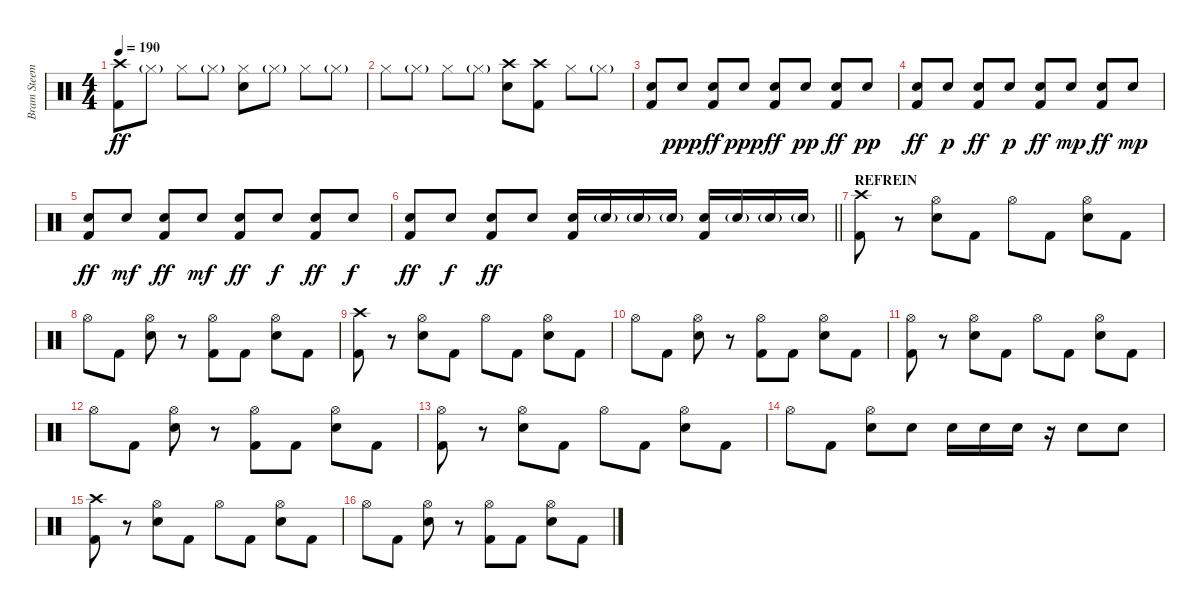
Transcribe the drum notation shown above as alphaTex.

\track ("Bram Steemans" "Bram Steem") {instrument percussion}
\staff {score}
\articulation defaults
\ts (4 4)
\tempo 190
\clef neutral
\ks c
("Crash high (hit)" "Kick (hit) 2").8{dy ff} "Hi-Hat (closed)"{g}.8 "Hi-Hat (closed)".8 "Hi-Hat (closed)"{g}.8 ("Hi-Hat (closed)" "Snare (hit) 2").8 "Hi-Hat (closed)"{g}.8 "Hi-Hat (closed)".8 "Hi-Hat (closed)"{g}.8 |
"Hi-Hat (closed)".8 "Hi-Hat (closed)"{g}.8 "Hi-Hat (closed)".8 "Hi-Hat (closed)"{g}.8 ("Crash high (hit)" "Snare (hit) 2").8 ("Crash high (hit)" "Kick (hit) 2").8 "Hi-Hat (closed)".8 "Hi-Hat (closed)"{g}.8 |
("Snare (hit) 2" "Kick (hit) 2").8 "Snare (hit) 2".8{dy ppp} ("Snare (hit) 2" "Kick (hit) 2").8{dy ff} "Snare (hit) 2".8{dy ppp} ("Snare (hit) 2" "Kick (hit) 2").8{dy ff} "Snare (hit) 2".8{dy pp} ("Snare (hit) 2" "Kick (hit) 2").8{dy ff} "Snare (hit) 2".8{dy pp} |
("Snare (hit) 2" "Kick (hit) 2").8{dy ff} "Snare (hit) 2".8{dy p} ("Snare (hit) 2" "Kick (hit) 2").8{dy ff} "Snare (hit) 2".8{dy p} ("Snare (hit) 2" "Kick (hit) 2").8{dy ff} "Snare (hit) 2".8{dy mp} ("Snare (hit) 2" "Kick (hit) 2").8{dy ff} "Snare (hit) 2".8{dy mp} |
("Snare (hit) 2" "Kick (hit) 2").8{dy ff} "Snare (hit) 2".8{dy mf} ("Snare (hit) 2" "Kick (hit) 2").8{dy ff} "Snare (hit) 2".8{dy mf} ("Snare (hit) 2" "Kick (hit) 2").8{dy ff} "Snare (hit) 2".8{dy f} ("Snare (hit) 2" "Kick (hit) 2").8{dy ff} "Snare (hit) 2".8{dy f} |
\barLineRight lightlight
("Snare (hit) 2" "Kick (hit) 2").8{dy ff} "Snare (hit) 2".8{dy f} ("Snare (hit) 2" "Kick (hit) 2").8{dy ff} "Snare (hit) 2".8 ("Snare (hit) 2" "Kick (hit) 2").16 "Snare (hit) 2"{g}.16 "Snare (hit) 2"{g}.16 "Snare (hit) 2"{g}.16 ("Snare (hit) 2" "Kick (hit) 2").16 "Snare (hit) 2"{g}.16 "Snare (hit) 2"{g}.16 "Snare (hit) 2"{g}.16 |
\section ("" "REFREIN")
("Crash high (hit)" "Kick (hit) 2").8 r.8 ("Hi-Hat (open)" "Snare (hit) 2").8 "Kick (hit) 2".8 "Hi-Hat (open)".8 "Kick (hit) 2".8 ("Hi-Hat (open)" "Snare (hit) 2").8 "Kick (hit) 2".8 |
"Hi-Hat (open)".8 "Kick (hit) 2".8 ("Hi-Hat (open)" "Snare (hit) 2").8 r.8 ("Hi-Hat (open)" "Kick (hit) 2").8 "Kick (hit) 2".8 ("Hi-Hat (open)" "Snare (hit) 2").8 "Kick (hit) 2".8 |
("Crash high (hit)" "Kick (hit) 2").8 r.8 ("Hi-Hat (open)" "Snare (hit) 2").8 "Kick (hit) 2".8 "Hi-Hat (open)".8 "Kick (hit) 2".8 ("Hi-Hat (open)" "Snare (hit) 2").8 "Kick (hit) 2".8 |
"Hi-Hat (open)".8 "Kick (hit) 2".8 ("Hi-Hat (open)" "Snare (hit) 2").8 r.8 ("Hi-Hat (open)" "Kick (hit) 2").8 "Kick (hit) 2".8 ("Hi-Hat (open)" "Snare (hit) 2").8 "Kick (hit) 2".8 |
("Hi-Hat (open)" "Kick (hit) 2").8 r.8 ("Hi-Hat (open)" "Snare (hit) 2").8 "Kick (hit) 2".8 "Hi-Hat (open)".8 "Kick (hit) 2".8 ("Hi-Hat (open)" "Snare (hit) 2").8 "Kick (hit) 2".8 |
"Hi-Hat (open)".8 "Kick (hit) 2".8 ("Hi-Hat (open)" "Snare (hit) 2").8 r.8 ("Hi-Hat (open)" "Kick (hit) 2").8 "Kick (hit) 2".8 ("Hi-Hat (open)" "Snare (hit) 2").8 "Kick (hit) 2".8 |
("Hi-Hat (open)" "Kick (hit) 2").8 r.8 ("Hi-Hat (open)" "Snare (hit) 2").8 "Kick (hit) 2".8 "Hi-Hat (open)".8 "Kick (hit) 2".8 ("Hi-Hat (open)" "Snare (hit) 2").8 "Kick (hit) 2".8 |
"Hi-Hat (open)".8 "Kick (hit) 2".8 ("Hi-Hat (open)" "Snare (hit) 2").8 "Snare (hit) 2".8 "Snare (hit) 2".16 "Snare (hit) 2".16 "Snare (hit) 2".16 r.16 "Snare (hit) 2".8 "Snare (hit) 2".8 |
("Crash high (hit)" "Kick (hit) 2").8 r.8 ("Hi-Hat (open)" "Snare (hit) 2").8 "Kick (hit) 2".8 "Hi-Hat (open)".8 "Kick (hit) 2".8 ("Hi-Hat (open)" "Snare (hit) 2").8 "Kick (hit) 2".8 |
"Hi-Hat (open)".8 "Kick (hit) 2".8 ("Hi-Hat (open)" "Snare (hit) 2").8 r.8 ("Hi-Hat (open)" "Kick (hit) 2").8 "Kick (hit) 2".8 ("Hi-Hat (open)" "Snare (hit) 2").8 "Kick (hit) 2".8
